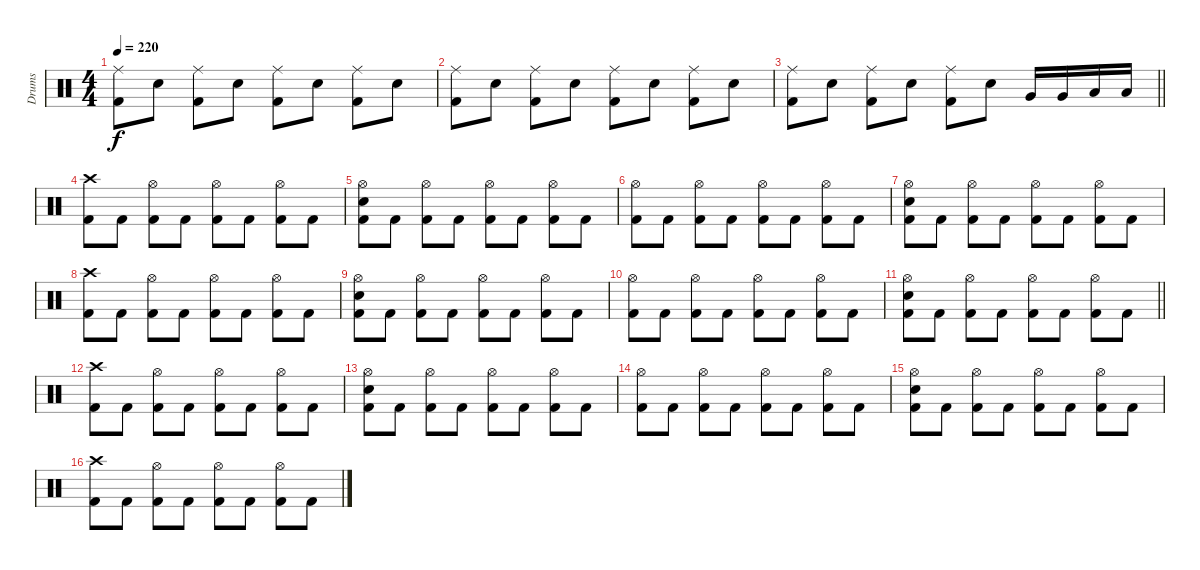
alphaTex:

\track ("Drums" "Drums") {instrument percussion}
\staff {score}
\articulation defaults
\ts (4 4)
\tempo 220
\clef neutral
\ks c
("Ride (middle)" "Kick (hit) 2").8{dy f} "Electric Snare (hit)".8 ("Ride (middle)" "Kick (hit) 2").8 "Electric Snare (hit)".8 ("Ride (middle)" "Kick (hit) 2").8 "Electric Snare (hit)".8 ("Ride (middle)" "Kick (hit) 2").8 "Electric Snare (hit)".8 |
("Ride (middle)" "Kick (hit) 2").8 "Electric Snare (hit)".8 ("Ride (middle)" "Kick (hit) 2").8 "Electric Snare (hit)".8 ("Ride (middle)" "Kick (hit) 2").8 "Electric Snare (hit)".8 ("Ride (middle)" "Kick (hit) 2").8 "Electric Snare (hit)".8 |
\barLineRight lightlight
("Ride (middle)" "Kick (hit) 2").8 "Electric Snare (hit)".8 ("Ride (middle)" "Kick (hit) 2").8 "Electric Snare (hit)".8 ("Ride (middle)" "Kick (hit) 2").8 "Electric Snare (hit)".8 "Very Low Tom (hit)".16 "Very Low Tom (hit)".16 "Low Floor Tom (hit)".16 "Low Floor Tom (hit)".16 |
("Crash high (hit)" "Kick (hit) 2").8 "Kick (hit) 2".8 ("Hi-Hat (open)" "Kick (hit) 2").8 "Kick (hit) 2".8 ("Hi-Hat (open)" "Kick (hit) 2").8 "Kick (hit) 2".8 ("Hi-Hat (open)" "Kick (hit) 2").8 "Kick (hit) 2".8 |
("Hi-Hat (open)" "Electric Snare (hit)" "Kick (hit) 2").8 "Kick (hit) 2".8 ("Hi-Hat (open)" "Kick (hit) 2").8 "Kick (hit) 2".8 ("Hi-Hat (open)" "Kick (hit) 2").8 "Kick (hit) 2".8 ("Hi-Hat (open)" "Kick (hit) 2").8 "Kick (hit) 2".8 |
("Hi-Hat (open)" "Kick (hit) 2").8 "Kick (hit) 2".8 ("Hi-Hat (open)" "Kick (hit) 2").8 "Kick (hit) 2".8 ("Hi-Hat (open)" "Kick (hit) 2").8 "Kick (hit) 2".8 ("Hi-Hat (open)" "Kick (hit) 2").8 "Kick (hit) 2".8 |
("Hi-Hat (open)" "Electric Snare (hit)" "Kick (hit) 2").8 "Kick (hit) 2".8 ("Hi-Hat (open)" "Kick (hit) 2").8 "Kick (hit) 2".8 ("Hi-Hat (open)" "Kick (hit) 2").8 "Kick (hit) 2".8 ("Hi-Hat (open)" "Kick (hit) 2").8 "Kick (hit) 2".8 |
("Crash high (hit)" "Kick (hit) 2").8 "Kick (hit) 2".8 ("Hi-Hat (open)" "Kick (hit) 2").8 "Kick (hit) 2".8 ("Hi-Hat (open)" "Kick (hit) 2").8 "Kick (hit) 2".8 ("Hi-Hat (open)" "Kick (hit) 2").8 "Kick (hit) 2".8 |
("Hi-Hat (open)" "Electric Snare (hit)" "Kick (hit) 2").8 "Kick (hit) 2".8 ("Hi-Hat (open)" "Kick (hit) 2").8 "Kick (hit) 2".8 ("Hi-Hat (open)" "Kick (hit) 2").8 "Kick (hit) 2".8 ("Hi-Hat (open)" "Kick (hit) 2").8 "Kick (hit) 2".8 |
("Hi-Hat (open)" "Kick (hit) 2").8 "Kick (hit) 2".8 ("Hi-Hat (open)" "Kick (hit) 2").8 "Kick (hit) 2".8 ("Hi-Hat (open)" "Kick (hit) 2").8 "Kick (hit) 2".8 ("Hi-Hat (open)" "Kick (hit) 2").8 "Kick (hit) 2".8 |
\barLineRight lightlight
("Hi-Hat (open)" "Electric Snare (hit)" "Kick (hit) 2").8 "Kick (hit) 2".8 ("Hi-Hat (open)" "Kick (hit) 2").8 "Kick (hit) 2".8 ("Hi-Hat (open)" "Kick (hit) 2").8 "Kick (hit) 2".8 ("Hi-Hat (open)" "Kick (hit) 2").8 "Kick (hit) 2".8 |
("Crash high (hit)" "Kick (hit) 2").8 "Kick (hit) 2".8 ("Hi-Hat (open)" "Kick (hit) 2").8 "Kick (hit) 2".8 ("Hi-Hat (open)" "Kick (hit) 2").8 "Kick (hit) 2".8 ("Hi-Hat (open)" "Kick (hit) 2").8 "Kick (hit) 2".8 |
("Hi-Hat (open)" "Electric Snare (hit)" "Kick (hit) 2").8 "Kick (hit) 2".8 ("Hi-Hat (open)" "Kick (hit) 2").8 "Kick (hit) 2".8 ("Hi-Hat (open)" "Kick (hit) 2").8 "Kick (hit) 2".8 ("Hi-Hat (open)" "Kick (hit) 2").8 "Kick (hit) 2".8 |
("Hi-Hat (open)" "Kick (hit) 2").8 "Kick (hit) 2".8 ("Hi-Hat (open)" "Kick (hit) 2").8 "Kick (hit) 2".8 ("Hi-Hat (open)" "Kick (hit) 2").8 "Kick (hit) 2".8 ("Hi-Hat (open)" "Kick (hit) 2").8 "Kick (hit) 2".8 |
("Hi-Hat (open)" "Electric Snare (hit)" "Kick (hit) 2").8 "Kick (hit) 2".8 ("Hi-Hat (open)" "Kick (hit) 2").8 "Kick (hit) 2".8 ("Hi-Hat (open)" "Kick (hit) 2").8 "Kick (hit) 2".8 ("Hi-Hat (open)" "Kick (hit) 2").8 "Kick (hit) 2".8 |
("Crash high (hit)" "Kick (hit) 2").8 "Kick (hit) 2".8 ("Hi-Hat (open)" "Kick (hit) 2").8 "Kick (hit) 2".8 ("Hi-Hat (open)" "Kick (hit) 2").8 "Kick (hit) 2".8 ("Hi-Hat (open)" "Kick (hit) 2").8 "Kick (hit) 2".8
